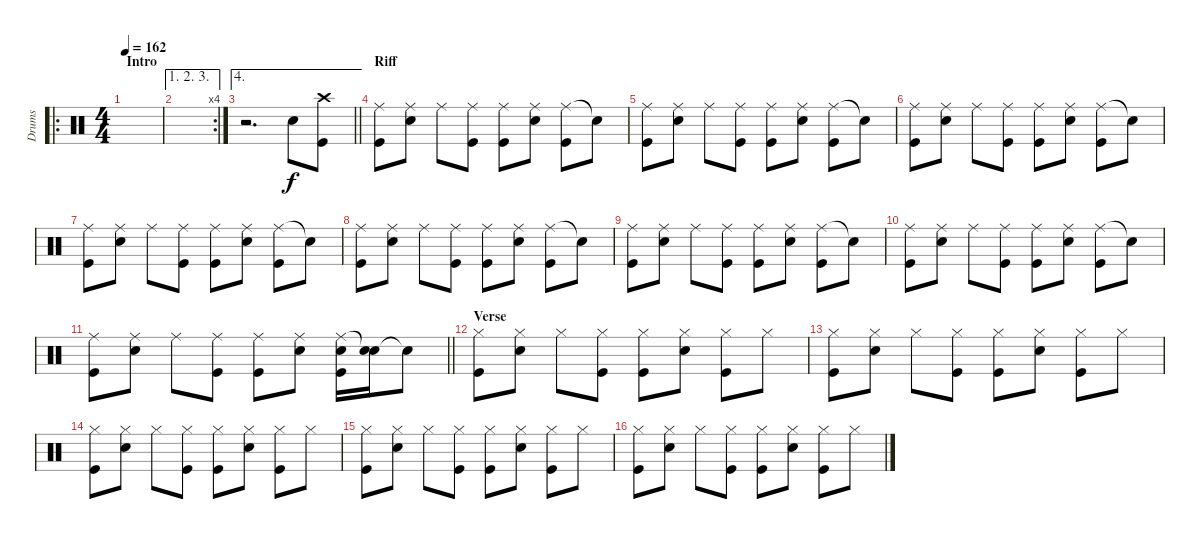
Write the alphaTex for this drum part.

\track ("Drums" "Drums") {instrument percussion}
\staff {score}
\articulation defaults
\ro
\ts (4 4)
\section ("" "Intro")
\tempo 162
\clef neutral
\ks c
|
\ae (1 2 3)
\rc 4
|
\ae 4
\barLineRight lightlight
r.2{d} "Snare (hit) 2".8 ("Crash high (hit)" "Kick (hit)").8 |
\section ("" "Riff")
("Ride (middle)" "Kick (hit)").8 ("Ride (middle)" "Snare (hit) 2").8 "Ride (middle)".8 ("Ride (middle)" "Kick (hit)").8 ("Ride (middle)" "Kick (hit)").8 ("Ride (middle)" "Snare (hit) 2").8 ("Ride (middle)" "Kick (hit)").8 "Snare (hit)"{t}.8 |
("Ride (middle)" "Kick (hit)").8 ("Ride (middle)" "Snare (hit) 2").8 "Ride (middle)".8 ("Ride (middle)" "Kick (hit)").8 ("Ride (middle)" "Kick (hit)").8 ("Ride (middle)" "Snare (hit) 2").8 ("Ride (middle)" "Kick (hit)").8 "Snare (hit)"{t}.8 |
("Ride (middle)" "Kick (hit)").8 ("Ride (middle)" "Snare (hit) 2").8 "Ride (middle)".8 ("Ride (middle)" "Kick (hit)").8 ("Ride (middle)" "Kick (hit)").8 ("Ride (middle)" "Snare (hit) 2").8 ("Ride (middle)" "Kick (hit)").8 "Snare (hit)"{t}.8 |
("Ride (middle)" "Kick (hit)").8 ("Ride (middle)" "Snare (hit) 2").8 "Ride (middle)".8 ("Ride (middle)" "Kick (hit)").8 ("Ride (middle)" "Kick (hit)").8 ("Ride (middle)" "Snare (hit) 2").8 ("Ride (middle)" "Kick (hit)").8 "Snare (hit)"{t}.8 |
("Ride (middle)" "Kick (hit)").8 ("Ride (middle)" "Snare (hit) 2").8 "Ride (middle)".8 ("Ride (middle)" "Kick (hit)").8 ("Ride (middle)" "Kick (hit)").8 ("Ride (middle)" "Snare (hit) 2").8 ("Ride (middle)" "Kick (hit)").8 "Snare (hit)"{t}.8 |
("Ride (middle)" "Kick (hit)").8 ("Ride (middle)" "Snare (hit) 2").8 "Ride (middle)".8 ("Ride (middle)" "Kick (hit)").8 ("Ride (middle)" "Kick (hit)").8 ("Ride (middle)" "Snare (hit) 2").8 ("Ride (middle)" "Kick (hit)").8 "Snare (hit)"{t}.8 |
("Ride (middle)" "Kick (hit)").8 ("Ride (middle)" "Snare (hit) 2").8 "Ride (middle)".8 ("Ride (middle)" "Kick (hit)").8 ("Ride (middle)" "Kick (hit)").8 ("Ride (middle)" "Snare (hit) 2").8 ("Ride (middle)" "Kick (hit)").8 "Snare (hit)"{t}.8 |
\barLineRight lightlight
("Ride (middle)" "Kick (hit)").8 ("Ride (middle)" "Snare (hit) 2").8 "Ride (middle)".8 ("Ride (middle)" "Kick (hit)").8 ("Ride (middle)" "Kick (hit)").8 ("Ride (middle)" "Snare (hit) 2").8 ("Ride (middle)" "Snare (hit) 2" "Kick (hit)").16 ("Snare (hit)"{t} "Snare (hit) 2").16 "Snare (hit)"{t}.8 |
\section ("" "Verse")
("Hi-Hat (closed)" "Kick (hit)").8 ("Hi-Hat (closed)" "Snare (hit) 2").8 "Hi-Hat (closed)".8 ("Hi-Hat (closed)" "Kick (hit)").8 ("Hi-Hat (closed)" "Kick (hit)").8 ("Hi-Hat (closed)" "Snare (hit) 2").8 ("Hi-Hat (closed)" "Kick (hit)").8 "Hi-Hat (closed)".8 |
("Hi-Hat (closed)" "Kick (hit)").8 ("Hi-Hat (closed)" "Snare (hit) 2").8 "Hi-Hat (closed)".8 ("Hi-Hat (closed)" "Kick (hit)").8 ("Hi-Hat (closed)" "Kick (hit)").8 ("Hi-Hat (closed)" "Snare (hit) 2").8 ("Hi-Hat (closed)" "Kick (hit)").8 "Hi-Hat (closed)".8 |
("Hi-Hat (closed)" "Kick (hit)").8 ("Hi-Hat (closed)" "Snare (hit) 2").8 "Hi-Hat (closed)".8 ("Hi-Hat (closed)" "Kick (hit)").8 ("Hi-Hat (closed)" "Kick (hit)").8 ("Hi-Hat (closed)" "Snare (hit) 2").8 ("Hi-Hat (closed)" "Kick (hit)").8 "Hi-Hat (closed)".8 |
("Hi-Hat (closed)" "Kick (hit)").8 ("Hi-Hat (closed)" "Snare (hit) 2").8 "Hi-Hat (closed)".8 ("Hi-Hat (closed)" "Kick (hit)").8 ("Hi-Hat (closed)" "Kick (hit)").8 ("Hi-Hat (closed)" "Snare (hit) 2").8 ("Hi-Hat (closed)" "Kick (hit)").8 "Hi-Hat (closed)".8 |
("Hi-Hat (closed)" "Kick (hit)").8 ("Hi-Hat (closed)" "Snare (hit) 2").8 "Hi-Hat (closed)".8 ("Hi-Hat (closed)" "Kick (hit)").8 ("Hi-Hat (closed)" "Kick (hit)").8 ("Hi-Hat (closed)" "Snare (hit) 2").8 ("Hi-Hat (closed)" "Kick (hit)").8 "Hi-Hat (closed)".8
